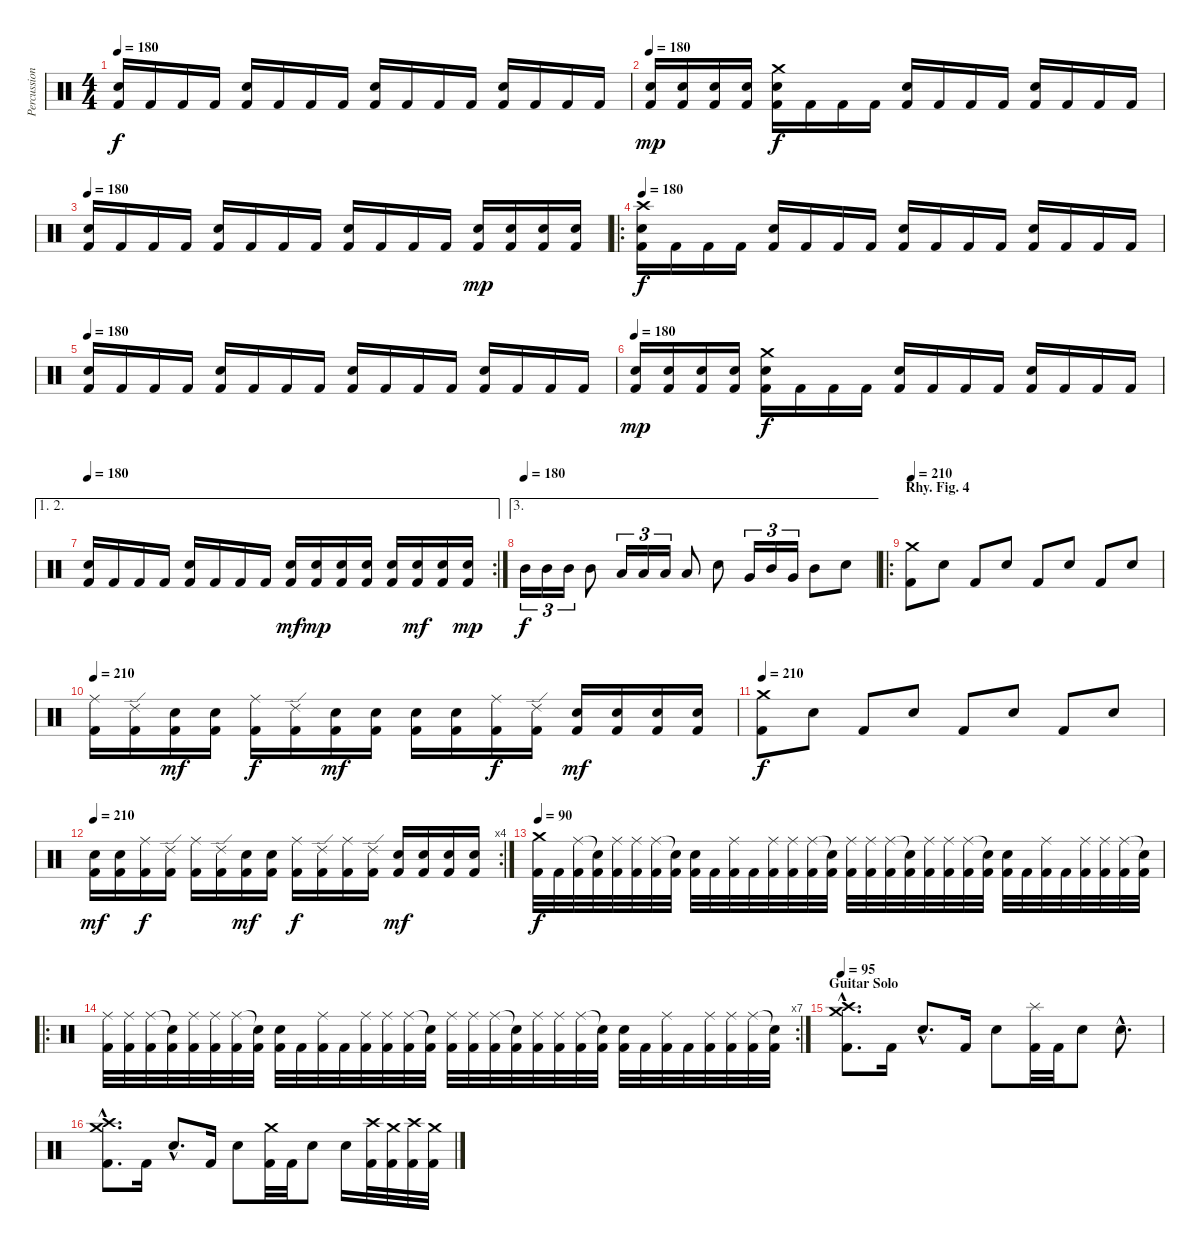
\track ("Percussion" "Percussion") {instrument percussion}
\staff {score}
\articulation defaults
\ts (4 4)
\tempo 180
\clef neutral
\ks c
("Snare (hit) 2" "Kick (hit) 2").16{dy f} "Kick (hit) 2".16 "Kick (hit) 2".16 "Kick (hit) 2".16 ("Snare (hit) 2" "Kick (hit) 2").16 "Kick (hit) 2".16 "Kick (hit) 2".16 "Kick (hit) 2".16 ("Snare (hit) 2" "Kick (hit) 2").16 "Kick (hit) 2".16 "Kick (hit) 2".16 "Kick (hit) 2".16 ("Snare (hit) 2" "Kick (hit) 2").16 "Kick (hit) 2".16 "Kick (hit) 2".16 "Kick (hit) 2".16 |
\tempo 180
("Snare (hit) 2" "Kick (hit) 2").16{dy mp} ("Snare (hit) 2" "Kick (hit) 2").16 ("Snare (hit) 2" "Kick (hit) 2").16 ("Snare (hit) 2" "Kick (hit) 2").16 ("Crash medium (hit)" "Snare (hit) 2" "Kick (hit) 2").16{dy f} "Kick (hit) 2".16 "Kick (hit) 2".16 "Kick (hit) 2".16 ("Snare (hit) 2" "Kick (hit) 2").16 "Kick (hit) 2".16 "Kick (hit) 2".16 "Kick (hit) 2".16 ("Snare (hit) 2" "Kick (hit) 2").16 "Kick (hit) 2".16 "Kick (hit) 2".16 "Kick (hit) 2".16 |
\tempo 180
("Snare (hit) 2" "Kick (hit) 2").16 "Kick (hit) 2".16 "Kick (hit) 2".16 "Kick (hit) 2".16 ("Snare (hit) 2" "Kick (hit) 2").16 "Kick (hit) 2".16 "Kick (hit) 2".16 "Kick (hit) 2".16 ("Snare (hit) 2" "Kick (hit) 2").16 "Kick (hit) 2".16 "Kick (hit) 2".16 "Kick (hit) 2".16 ("Snare (hit) 2" "Kick (hit) 2").16{dy mp} ("Snare (hit) 2" "Kick (hit) 2").16 ("Snare (hit) 2" "Kick (hit) 2").16 ("Snare (hit) 2" "Kick (hit) 2").16 |
\ro
\tempo 180
("Crash high (hit)" "Snare (hit) 2" "Kick (hit) 2").16{dy f} "Kick (hit) 2".16 "Kick (hit) 2".16 "Kick (hit) 2".16 ("Snare (hit) 2" "Kick (hit) 2").16 "Kick (hit) 2".16 "Kick (hit) 2".16 "Kick (hit) 2".16 ("Snare (hit) 2" "Kick (hit) 2").16 "Kick (hit) 2".16 "Kick (hit) 2".16 "Kick (hit) 2".16 ("Snare (hit) 2" "Kick (hit) 2").16 "Kick (hit) 2".16 "Kick (hit) 2".16 "Kick (hit) 2".16 |
\tempo 180
("Snare (hit) 2" "Kick (hit) 2").16 "Kick (hit) 2".16 "Kick (hit) 2".16 "Kick (hit) 2".16 ("Snare (hit) 2" "Kick (hit) 2").16 "Kick (hit) 2".16 "Kick (hit) 2".16 "Kick (hit) 2".16 ("Snare (hit) 2" "Kick (hit) 2").16 "Kick (hit) 2".16 "Kick (hit) 2".16 "Kick (hit) 2".16 ("Snare (hit) 2" "Kick (hit) 2").16 "Kick (hit) 2".16 "Kick (hit) 2".16 "Kick (hit) 2".16 |
\tempo 180
("Snare (hit) 2" "Kick (hit) 2").16{dy mp} ("Snare (hit) 2" "Kick (hit) 2").16 ("Snare (hit) 2" "Kick (hit) 2").16 ("Snare (hit) 2" "Kick (hit) 2").16 ("Crash medium (hit)" "Snare (hit) 2" "Kick (hit) 2").16{dy f} "Kick (hit) 2".16 "Kick (hit) 2".16 "Kick (hit) 2".16 ("Snare (hit) 2" "Kick (hit) 2").16 "Kick (hit) 2".16 "Kick (hit) 2".16 "Kick (hit) 2".16 ("Snare (hit) 2" "Kick (hit) 2").16 "Kick (hit) 2".16 "Kick (hit) 2".16 "Kick (hit) 2".16 |
\ae (1 2)
\rc 2
\tempo 180
("Snare (hit) 2" "Kick (hit) 2").16 "Kick (hit) 2".16 "Kick (hit) 2".16 "Kick (hit) 2".16 ("Snare (hit) 2" "Kick (hit) 2").16 "Kick (hit) 2".16 "Kick (hit) 2".16 "Kick (hit) 2".16 ("Snare (hit) 2" "Kick (hit) 2").16{dy mf} ("Snare (hit) 2" "Kick (hit) 2").16{dy mp} ("Snare (hit) 2" "Kick (hit) 2").16 ("Snare (hit) 2" "Kick (hit) 2").16 ("Snare (hit) 2" "Kick (hit) 2").16 ("Snare (hit) 2" "Kick (hit) 2").16{dy mf} ("Snare (hit) 2" "Kick (hit) 2").16 ("Snare (hit) 2" "Kick (hit) 2").16{dy mp} |
\ae 3
\tempo (180)
"Mid Tom (hit)".16{tu (3 2) dy f} "Mid Tom (hit)".16{tu (3 2)} "Mid Tom (hit)".16{tu (3 2)} "Mid Tom (hit)".8 "Low Tom (hit)".16{tu (3 2)} "Low Tom (hit)".16{tu (3 2)} "Low Tom (hit)".16{tu (3 2)} "Low Tom (hit)".8 "Snare (hit) 2".8 "Very Low Tom (hit)".16{tu (3 2)} "Mid Tom (hit)".16{tu (3 2)} "Very Low Tom (hit)".16{tu (3 2)} "Mid Tom (hit)".8 "Snare (hit) 2".8 |
\ro
\section ("" "Rhy. Fig. 4")
\tempo 210
("Crash medium (hit)" "Kick (hit) 2").8 "Snare (hit) 2".8 "Kick (hit) 2".8 "Snare (hit) 2".8 "Kick (hit) 2".8 "Snare (hit) 2".8 "Kick (hit) 2".8 "Snare (hit) 2".8 |
\tempo 210
("Ride (middle)" "Kick (hit) 2").16 ("Ride (edge) 2" "Kick (hit) 2").16 ("Snare (hit) 2" "Kick (hit) 2").16{dy mf} ("Snare (hit) 2" "Kick (hit) 2").16 ("Ride (middle)" "Kick (hit) 2").16{dy f} ("Ride (edge) 2" "Kick (hit) 2").16 ("Snare (hit) 2" "Kick (hit) 2").16{dy mf} ("Snare (hit) 2" "Kick (hit) 2").16 ("Snare (hit) 2" "Kick (hit) 2").16 ("Snare (hit) 2" "Kick (hit) 2").16 ("Ride (middle)" "Kick (hit) 2").16{dy f} ("Ride (edge) 2" "Kick (hit) 2").16 ("Snare (hit) 2" "Kick (hit) 2").16{dy mf} ("Snare (hit) 2" "Kick (hit) 2").16 ("Snare (hit) 2" "Kick (hit) 2").16 ("Snare (hit) 2" "Kick (hit) 2").16 |
\tempo 210
("Crash medium (hit)" "Kick (hit) 2").8{dy f} "Snare (hit) 2".8 "Kick (hit) 2".8 "Snare (hit) 2".8 "Kick (hit) 2".8 "Snare (hit) 2".8 "Kick (hit) 2".8 "Snare (hit) 2".8 |
\rc 4
\tempo 210
("Snare (hit) 2" "Kick (hit) 2").16{dy mf} ("Snare (hit) 2" "Kick (hit) 2").16 ("Ride (middle)" "Kick (hit) 2").16{dy f} ("Ride (edge) 2" "Kick (hit) 2").16 ("Ride (middle)" "Kick (hit) 2").16 ("Ride (edge) 2" "Kick (hit) 2").16 ("Snare (hit) 2" "Kick (hit) 2").16{dy mf} ("Snare (hit) 2" "Kick (hit) 2").16 ("Ride (middle)" "Kick (hit) 2").16{dy f} ("Ride (edge) 2" "Kick (hit) 2").16 ("Ride (middle)" "Kick (hit) 2").16 ("Ride (edge) 2" "Kick (hit) 2").16 ("Snare (hit) 2" "Kick (hit) 2").16{dy mf} ("Snare (hit) 2" "Kick (hit) 2").16 ("Snare (hit) 2" "Kick (hit) 2").16 ("Snare (hit) 2" "Kick (hit) 2").16 |
\tempo 90
("Crash medium (hit)" "Kick (hit) 2").32{dy f} "Kick (hit) 2".32 ("Ride (middle)" "Kick (hit) 2").32 ("Snare (hit)"{t} "Kick (hit) 2").32 ("Ride (middle)" "Kick (hit) 2").32 ("Ride (middle)" "Kick (hit) 2").32 ("Ride (middle)" "Kick (hit) 2").32 ("Snare (hit)"{t} "Kick (hit) 2").32 ("Snare (hit) 2" "Kick (hit) 2").32 "Kick (hit) 2".32 ("Ride (middle)" "Kick (hit) 2").32 "Kick (hit) 2".32 ("Ride (middle)" "Kick (hit) 2").32 ("Ride (middle)" "Kick (hit) 2").32 ("Ride (middle)" "Kick (hit) 2").32 ("Snare (hit)"{t} "Kick (hit) 2").32 ("Ride (middle)" "Kick (hit) 2").32 ("Ride (middle)" "Kick (hit) 2").32 ("Ride (middle)" "Kick (hit) 2").32 ("Snare (hit)"{t} "Kick (hit) 2").32 ("Ride (middle)" "Kick (hit) 2").32 ("Ride (middle)" "Kick (hit) 2").32 ("Ride (middle)" "Kick (hit) 2").32 ("Snare (hit)"{t} "Kick (hit) 2").32 ("Snare (hit) 2" "Kick (hit) 2").32 "Kick (hit) 2".32 ("Ride (middle)" "Kick (hit) 2").32 "Kick (hit) 2".32 ("Ride (middle)" "Kick (hit) 2").32 ("Ride (middle)" "Kick (hit) 2").32 ("Ride (middle)" "Kick (hit) 2").32 ("Snare (hit)"{t} "Kick (hit) 2").32 |
\ro
\rc 7
("Ride (middle)" "Kick (hit) 2").32 ("Ride (middle)" "Kick (hit) 2").32 ("Ride (middle)" "Kick (hit) 2").32 ("Snare (hit)"{t} "Kick (hit) 2").32 ("Ride (middle)" "Kick (hit) 2").32 ("Ride (middle)" "Kick (hit) 2").32 ("Ride (middle)" "Kick (hit) 2").32 ("Snare (hit)"{t} "Kick (hit) 2").32 ("Snare (hit) 2" "Kick (hit) 2").32 "Kick (hit) 2".32 ("Ride (middle)" "Kick (hit) 2").32 "Kick (hit) 2".32 ("Ride (middle)" "Kick (hit) 2").32 ("Ride (middle)" "Kick (hit) 2").32 ("Ride (middle)" "Kick (hit) 2").32 ("Snare (hit)"{t} "Kick (hit) 2").32 ("Ride (middle)" "Kick (hit) 2").32 ("Ride (middle)" "Kick (hit) 2").32 ("Ride (middle)" "Kick (hit) 2").32 ("Snare (hit)"{t} "Kick (hit) 2").32 ("Ride (middle)" "Kick (hit) 2").32 ("Ride (middle)" "Kick (hit) 2").32 ("Ride (middle)" "Kick (hit) 2").32 ("Snare (hit)"{t} "Kick (hit) 2").32 ("Snare (hit) 2" "Kick (hit) 2").32 "Kick (hit) 2".32 ("Ride (middle)" "Kick (hit) 2").32 "Kick (hit) 2".32 ("Ride (middle)" "Kick (hit) 2").32 ("Ride (middle)" "Kick (hit) 2").32 ("Ride (middle)" "Kick (hit) 2").32 ("Snare (hit)"{t} "Kick (hit) 2").32 |
\section ("" "Guitar Solo")
\tempo 95
("Crash medium (hit)"{hac} "Crash high (hit)"{hac} "Kick (hit) 2"{hac}).8{d} "Kick (hit) 2".16 "Snare (hit) 2"{hac}.8{d} "Kick (hit) 2".16 "Snare (hit) 2".8 ("Splash (hit)" "Kick (hit) 2").32 "Kick (hit) 2".32 "Snare (hit) 2".8 "Snare (hit) 2"{hac}.8{d} |
("Crash medium (hit)"{hac} "Crash high (hit)"{hac} "Kick (hit) 2"{hac}).8{d} "Kick (hit) 2".16 "Snare (hit) 2"{hac}.8{d} "Kick (hit) 2".16 "Snare (hit) 2".8 ("Crash medium (hit)" "Kick (hit) 2").32 "Kick (hit) 2".32 "Snare (hit) 2".8 "Snare (hit) 2".16 ("Crash high (hit)" "Kick (hit) 2").32 ("Crash medium (hit)" "Kick (hit) 2").32 ("Crash high (hit)" "Kick (hit) 2").32 ("Crash medium (hit)" "Kick (hit) 2").32
